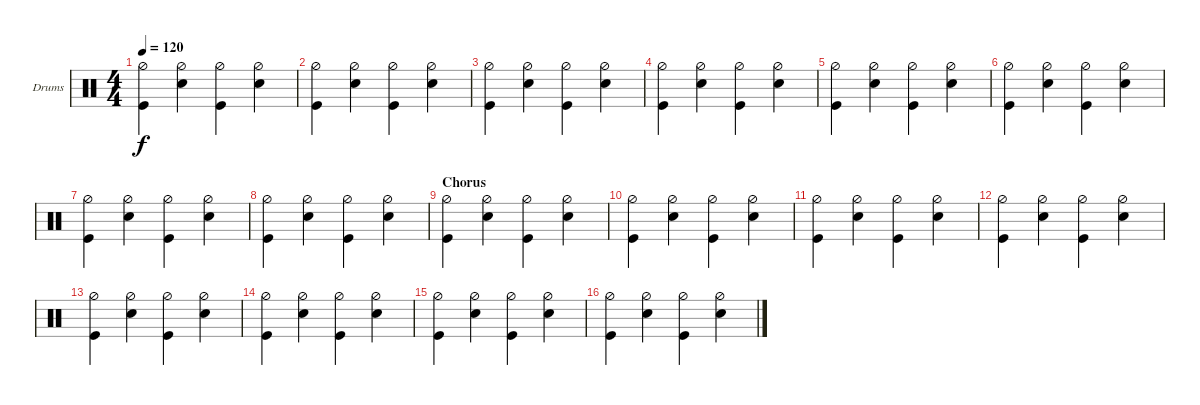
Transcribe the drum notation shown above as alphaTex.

\defaultSystemsLayout 4
\bracketExtendMode groupsimilarinstruments
\firstSystemTrackNameOrientation horizontal
\otherSystemsTrackNameOrientation horizontal
\track ("Drumkit" "Drums") {instrument percussion}
\staff {score}
\articulation defaults
\ts (4 4)
\tempo 120
\clef neutral
\ks c
("Kick (hit)" "Hi-Hat (half)").4{dy f} ("Snare (hit) 2" "Hi-Hat (half)").4 ("Kick (hit)" "Hi-Hat (half)").4 ("Snare (hit) 2" "Hi-Hat (half)").4 |
("Kick (hit)" "Hi-Hat (half)").4 ("Snare (hit) 2" "Hi-Hat (half)").4 ("Kick (hit)" "Hi-Hat (half)").4 ("Snare (hit) 2" "Hi-Hat (half)").4 |
("Kick (hit)" "Hi-Hat (half)").4 ("Snare (hit) 2" "Hi-Hat (half)").4 ("Kick (hit)" "Hi-Hat (half)").4 ("Snare (hit) 2" "Hi-Hat (half)").4 |
("Kick (hit)" "Hi-Hat (half)").4 ("Snare (hit) 2" "Hi-Hat (half)").4 ("Kick (hit)" "Hi-Hat (half)").4 ("Snare (hit) 2" "Hi-Hat (half)").4 |
("Kick (hit)" "Hi-Hat (half)").4 ("Snare (hit) 2" "Hi-Hat (half)").4 ("Kick (hit)" "Hi-Hat (half)").4 ("Snare (hit) 2" "Hi-Hat (half)").4 |
("Kick (hit)" "Hi-Hat (half)").4 ("Snare (hit) 2" "Hi-Hat (half)").4 ("Kick (hit)" "Hi-Hat (half)").4 ("Snare (hit) 2" "Hi-Hat (half)").4 |
("Kick (hit)" "Hi-Hat (half)").4 ("Snare (hit) 2" "Hi-Hat (half)").4 ("Kick (hit)" "Hi-Hat (half)").4 ("Snare (hit) 2" "Hi-Hat (half)").4 |
("Kick (hit)" "Hi-Hat (half)").4 ("Snare (hit) 2" "Hi-Hat (half)").4 ("Kick (hit)" "Hi-Hat (half)").4 ("Snare (hit) 2" "Hi-Hat (half)").4 |
\section ("" "Chorus")
("Kick (hit)" "Hi-Hat (half)").4 ("Snare (hit) 2" "Hi-Hat (half)").4 ("Kick (hit)" "Hi-Hat (half)").4 ("Snare (hit) 2" "Hi-Hat (half)").4 |
("Kick (hit)" "Hi-Hat (half)").4 ("Snare (hit) 2" "Hi-Hat (half)").4 ("Kick (hit)" "Hi-Hat (half)").4 ("Snare (hit) 2" "Hi-Hat (half)").4 |
("Kick (hit)" "Hi-Hat (half)").4 ("Snare (hit) 2" "Hi-Hat (half)").4 ("Kick (hit)" "Hi-Hat (half)").4 ("Snare (hit) 2" "Hi-Hat (half)").4 |
("Kick (hit)" "Hi-Hat (half)").4 ("Snare (hit) 2" "Hi-Hat (half)").4 ("Kick (hit)" "Hi-Hat (half)").4 ("Snare (hit) 2" "Hi-Hat (half)").4 |
("Kick (hit)" "Hi-Hat (half)").4 ("Snare (hit) 2" "Hi-Hat (half)").4 ("Kick (hit)" "Hi-Hat (half)").4 ("Snare (hit) 2" "Hi-Hat (half)").4 |
("Kick (hit)" "Hi-Hat (half)").4 ("Snare (hit) 2" "Hi-Hat (half)").4 ("Kick (hit)" "Hi-Hat (half)").4 ("Snare (hit) 2" "Hi-Hat (half)").4 |
("Kick (hit)" "Hi-Hat (half)").4 ("Snare (hit) 2" "Hi-Hat (half)").4 ("Kick (hit)" "Hi-Hat (half)").4 ("Snare (hit) 2" "Hi-Hat (half)").4 |
("Kick (hit)" "Hi-Hat (half)").4 ("Snare (hit) 2" "Hi-Hat (half)").4 ("Kick (hit)" "Hi-Hat (half)").4 ("Snare (hit) 2" "Hi-Hat (half)").4
